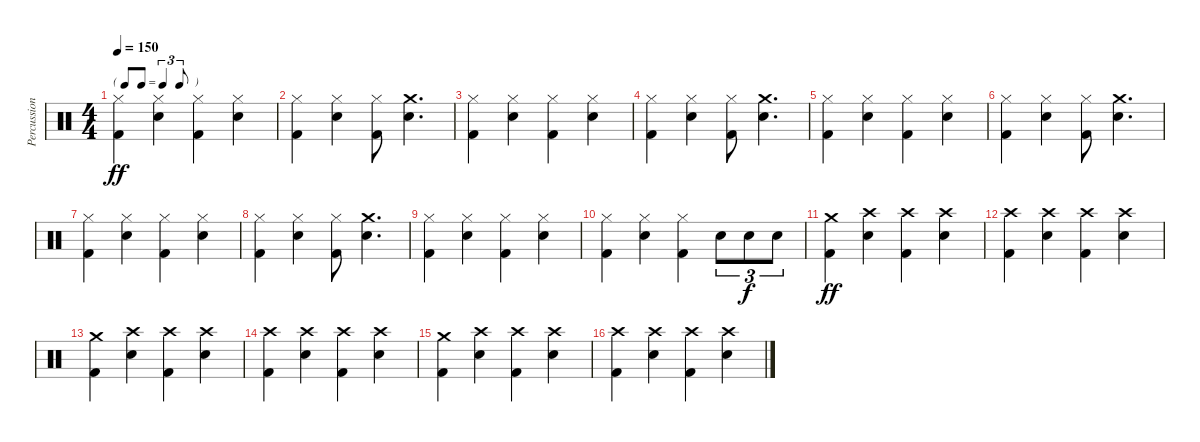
\track ("Percussion" "Percussion") {instrument percussion}
\staff {score}
\articulation defaults
\ts (4 4)
\tf triplet8th
\tempo 150
\clef neutral
\ks c
("Hi-Hat (closed)" "Kick (hit) 2").4{dy ff} ("Hi-Hat (closed)" "Electric Snare (hit)").4 ("Hi-Hat (closed)" "Kick (hit) 2").4 ("Hi-Hat (closed)" "Electric Snare (hit)").4 |
("Hi-Hat (closed)" "Kick (hit) 2").4 ("Hi-Hat (closed)" "Electric Snare (hit)").4 ("Hi-Hat (closed)" "Kick (hit) 2").8 ("Crash medium (hit)" "Electric Snare (hit)").4{d} |
("Hi-Hat (closed)" "Kick (hit) 2").4 ("Hi-Hat (closed)" "Electric Snare (hit)").4 ("Hi-Hat (closed)" "Kick (hit) 2").4 ("Hi-Hat (closed)" "Electric Snare (hit)").4 |
("Hi-Hat (closed)" "Kick (hit) 2").4 ("Hi-Hat (closed)" "Electric Snare (hit)").4 ("Hi-Hat (closed)" "Kick (hit) 2").8 ("Crash medium (hit)" "Electric Snare (hit)").4{d} |
("Hi-Hat (closed)" "Kick (hit) 2").4 ("Hi-Hat (closed)" "Electric Snare (hit)").4 ("Hi-Hat (closed)" "Kick (hit) 2").4 ("Hi-Hat (closed)" "Electric Snare (hit)").4 |
("Hi-Hat (closed)" "Kick (hit) 2").4 ("Hi-Hat (closed)" "Electric Snare (hit)").4 ("Hi-Hat (closed)" "Kick (hit) 2").8 ("Crash medium (hit)" "Electric Snare (hit)").4{d} |
("Hi-Hat (closed)" "Kick (hit) 2").4 ("Hi-Hat (closed)" "Electric Snare (hit)").4 ("Hi-Hat (closed)" "Kick (hit) 2").4 ("Hi-Hat (closed)" "Electric Snare (hit)").4 |
("Hi-Hat (closed)" "Kick (hit) 2").4 ("Hi-Hat (closed)" "Electric Snare (hit)").4 ("Hi-Hat (closed)" "Kick (hit) 2").8 ("Crash medium (hit)" "Electric Snare (hit)").4{d} |
("Hi-Hat (closed)" "Kick (hit) 2").4 ("Hi-Hat (closed)" "Electric Snare (hit)").4 ("Hi-Hat (closed)" "Kick (hit) 2").4 ("Hi-Hat (closed)" "Electric Snare (hit)").4 |
("Hi-Hat (closed)" "Kick (hit) 2").4 ("Hi-Hat (closed)" "Electric Snare (hit)").4 ("Hi-Hat (closed)" "Kick (hit) 2").4 "Electric Snare (hit)".8{tu (3 2)} "Electric Snare (hit)".8{tu (3 2) dy f} "Electric Snare (hit)".8{tu (3 2)} |
("Crash medium (hit)" "Kick (hit) 2").4{dy ff} ("Crash high (hit)" "Electric Snare (hit)").4 ("Crash high (hit)" "Kick (hit) 2").4 ("Crash high (hit)" "Electric Snare (hit)").4 |
("Crash high (hit)" "Kick (hit) 2").4 ("Crash high (hit)" "Electric Snare (hit)").4 ("Crash high (hit)" "Kick (hit) 2").4 ("Crash high (hit)" "Electric Snare (hit)").4 |
("Crash medium (hit)" "Kick (hit) 2").4 ("Crash high (hit)" "Electric Snare (hit)").4 ("Crash high (hit)" "Kick (hit) 2").4 ("Crash high (hit)" "Electric Snare (hit)").4 |
("Crash high (hit)" "Kick (hit) 2").4 ("Crash high (hit)" "Electric Snare (hit)").4 ("Crash high (hit)" "Kick (hit) 2").4 ("Crash high (hit)" "Electric Snare (hit)").4 |
("Crash medium (hit)" "Kick (hit) 2").4 ("Crash high (hit)" "Electric Snare (hit)").4 ("Crash high (hit)" "Kick (hit) 2").4 ("Crash high (hit)" "Electric Snare (hit)").4 |
("Crash high (hit)" "Kick (hit) 2").4 ("Crash high (hit)" "Electric Snare (hit)").4 ("Crash high (hit)" "Kick (hit) 2").4 ("Crash high (hit)" "Electric Snare (hit)").4
